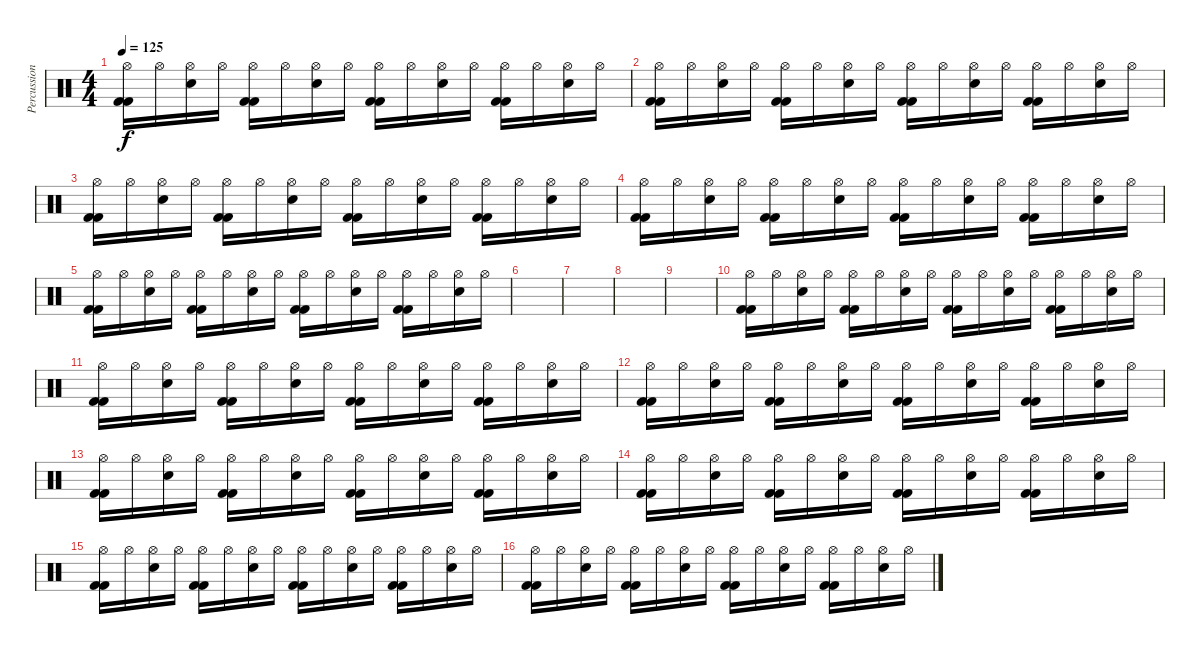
\track ("Percussioni" "Percussion") {instrument percussion}
\staff {score}
\articulation defaults
\ts (4 4)
\tempo 125
\clef neutral
\ks c
("Hi-Hat (open)" "Kick (hit) 2" "Kick (hit) 2").16{dy f} "Hi-Hat (open)".16 ("Hi-Hat (open)" "Electric Snare (hit)").16 "Hi-Hat (open)".16 ("Hi-Hat (open)" "Kick (hit) 2" "Kick (hit) 2").16 "Hi-Hat (open)".16 ("Hi-Hat (open)" "Electric Snare (hit)").16 "Hi-Hat (open)".16 ("Hi-Hat (open)" "Kick (hit) 2" "Kick (hit) 2").16 "Hi-Hat (open)".16 ("Hi-Hat (open)" "Electric Snare (hit)").16 "Hi-Hat (open)".16 ("Hi-Hat (open)" "Kick (hit) 2" "Kick (hit) 2").16 "Hi-Hat (open)".16 ("Hi-Hat (open)" "Electric Snare (hit)").16 "Hi-Hat (open)".16 |
("Hi-Hat (open)" "Kick (hit) 2" "Kick (hit) 2").16 "Hi-Hat (open)".16 ("Hi-Hat (open)" "Electric Snare (hit)").16 "Hi-Hat (open)".16 ("Hi-Hat (open)" "Kick (hit) 2" "Kick (hit) 2").16 "Hi-Hat (open)".16 ("Hi-Hat (open)" "Electric Snare (hit)").16 "Hi-Hat (open)".16 ("Hi-Hat (open)" "Kick (hit) 2" "Kick (hit) 2").16 "Hi-Hat (open)".16 ("Hi-Hat (open)" "Electric Snare (hit)").16 "Hi-Hat (open)".16 ("Hi-Hat (open)" "Kick (hit) 2" "Kick (hit) 2").16 "Hi-Hat (open)".16 ("Hi-Hat (open)" "Electric Snare (hit)").16 "Hi-Hat (open)".16 |
("Hi-Hat (open)" "Kick (hit) 2" "Kick (hit) 2").16 "Hi-Hat (open)".16 ("Hi-Hat (open)" "Electric Snare (hit)").16 "Hi-Hat (open)".16 ("Hi-Hat (open)" "Kick (hit) 2" "Kick (hit) 2").16 "Hi-Hat (open)".16 ("Hi-Hat (open)" "Electric Snare (hit)").16 "Hi-Hat (open)".16 ("Hi-Hat (open)" "Kick (hit) 2" "Kick (hit) 2").16 "Hi-Hat (open)".16 ("Hi-Hat (open)" "Electric Snare (hit)").16 "Hi-Hat (open)".16 ("Hi-Hat (open)" "Kick (hit) 2" "Kick (hit) 2").16 "Hi-Hat (open)".16 ("Hi-Hat (open)" "Electric Snare (hit)").16 "Hi-Hat (open)".16 |
("Hi-Hat (open)" "Kick (hit) 2" "Kick (hit) 2").16 "Hi-Hat (open)".16 ("Hi-Hat (open)" "Electric Snare (hit)").16 "Hi-Hat (open)".16 ("Hi-Hat (open)" "Kick (hit) 2" "Kick (hit) 2").16 "Hi-Hat (open)".16 ("Hi-Hat (open)" "Electric Snare (hit)").16 "Hi-Hat (open)".16 ("Hi-Hat (open)" "Kick (hit) 2" "Kick (hit) 2").16 "Hi-Hat (open)".16 ("Hi-Hat (open)" "Electric Snare (hit)").16 "Hi-Hat (open)".16 ("Hi-Hat (open)" "Kick (hit) 2" "Kick (hit) 2").16 "Hi-Hat (open)".16 ("Hi-Hat (open)" "Electric Snare (hit)").16 "Hi-Hat (open)".16 |
("Hi-Hat (open)" "Kick (hit) 2" "Kick (hit) 2").16 "Hi-Hat (open)".16 ("Hi-Hat (open)" "Electric Snare (hit)").16 "Hi-Hat (open)".16 ("Hi-Hat (open)" "Kick (hit) 2" "Kick (hit) 2").16 "Hi-Hat (open)".16 ("Hi-Hat (open)" "Electric Snare (hit)").16 "Hi-Hat (open)".16 ("Hi-Hat (open)" "Kick (hit) 2" "Kick (hit) 2").16 "Hi-Hat (open)".16 ("Hi-Hat (open)" "Electric Snare (hit)").16 "Hi-Hat (open)".16 ("Hi-Hat (open)" "Kick (hit) 2" "Kick (hit) 2").16 "Hi-Hat (open)".16 ("Hi-Hat (open)" "Electric Snare (hit)").16 "Hi-Hat (open)".16 |
|
|
|
|
("Hi-Hat (open)" "Kick (hit) 2" "Kick (hit) 2").16 "Hi-Hat (open)".16 ("Hi-Hat (open)" "Electric Snare (hit)").16 "Hi-Hat (open)".16 ("Hi-Hat (open)" "Kick (hit) 2" "Kick (hit) 2").16 "Hi-Hat (open)".16 ("Hi-Hat (open)" "Electric Snare (hit)").16 "Hi-Hat (open)".16 ("Hi-Hat (open)" "Kick (hit) 2" "Kick (hit) 2").16 "Hi-Hat (open)".16 ("Hi-Hat (open)" "Electric Snare (hit)").16 "Hi-Hat (open)".16 ("Hi-Hat (open)" "Kick (hit) 2" "Kick (hit) 2").16 "Hi-Hat (open)".16 ("Hi-Hat (open)" "Electric Snare (hit)").16 "Hi-Hat (open)".16 |
("Hi-Hat (open)" "Kick (hit) 2" "Kick (hit) 2").16 "Hi-Hat (open)".16 ("Hi-Hat (open)" "Electric Snare (hit)").16 "Hi-Hat (open)".16 ("Hi-Hat (open)" "Kick (hit) 2" "Kick (hit) 2").16 "Hi-Hat (open)".16 ("Hi-Hat (open)" "Electric Snare (hit)").16 "Hi-Hat (open)".16 ("Hi-Hat (open)" "Kick (hit) 2" "Kick (hit) 2").16 "Hi-Hat (open)".16 ("Hi-Hat (open)" "Electric Snare (hit)").16 "Hi-Hat (open)".16 ("Hi-Hat (open)" "Kick (hit) 2" "Kick (hit) 2").16 "Hi-Hat (open)".16 ("Hi-Hat (open)" "Electric Snare (hit)").16 "Hi-Hat (open)".16 |
("Hi-Hat (open)" "Kick (hit) 2" "Kick (hit) 2").16 "Hi-Hat (open)".16 ("Hi-Hat (open)" "Electric Snare (hit)").16 "Hi-Hat (open)".16 ("Hi-Hat (open)" "Kick (hit) 2" "Kick (hit) 2").16 "Hi-Hat (open)".16 ("Hi-Hat (open)" "Electric Snare (hit)").16 "Hi-Hat (open)".16 ("Hi-Hat (open)" "Kick (hit) 2" "Kick (hit) 2").16 "Hi-Hat (open)".16 ("Hi-Hat (open)" "Electric Snare (hit)").16 "Hi-Hat (open)".16 ("Hi-Hat (open)" "Kick (hit) 2" "Kick (hit) 2").16 "Hi-Hat (open)".16 ("Hi-Hat (open)" "Electric Snare (hit)").16 "Hi-Hat (open)".16 |
("Hi-Hat (open)" "Kick (hit) 2" "Kick (hit) 2").16 "Hi-Hat (open)".16 ("Hi-Hat (open)" "Electric Snare (hit)").16 "Hi-Hat (open)".16 ("Hi-Hat (open)" "Kick (hit) 2" "Kick (hit) 2").16 "Hi-Hat (open)".16 ("Hi-Hat (open)" "Electric Snare (hit)").16 "Hi-Hat (open)".16 ("Hi-Hat (open)" "Kick (hit) 2" "Kick (hit) 2").16 "Hi-Hat (open)".16 ("Hi-Hat (open)" "Electric Snare (hit)").16 "Hi-Hat (open)".16 ("Hi-Hat (open)" "Kick (hit) 2" "Kick (hit) 2").16 "Hi-Hat (open)".16 ("Hi-Hat (open)" "Electric Snare (hit)").16 "Hi-Hat (open)".16 |
("Hi-Hat (open)" "Kick (hit) 2" "Kick (hit) 2").16 "Hi-Hat (open)".16 ("Hi-Hat (open)" "Electric Snare (hit)").16 "Hi-Hat (open)".16 ("Hi-Hat (open)" "Kick (hit) 2" "Kick (hit) 2").16 "Hi-Hat (open)".16 ("Hi-Hat (open)" "Electric Snare (hit)").16 "Hi-Hat (open)".16 ("Hi-Hat (open)" "Kick (hit) 2" "Kick (hit) 2").16 "Hi-Hat (open)".16 ("Hi-Hat (open)" "Electric Snare (hit)").16 "Hi-Hat (open)".16 ("Hi-Hat (open)" "Kick (hit) 2" "Kick (hit) 2").16 "Hi-Hat (open)".16 ("Hi-Hat (open)" "Electric Snare (hit)").16 "Hi-Hat (open)".16 |
("Hi-Hat (open)" "Kick (hit) 2" "Kick (hit) 2").16 "Hi-Hat (open)".16 ("Hi-Hat (open)" "Electric Snare (hit)").16 "Hi-Hat (open)".16 ("Hi-Hat (open)" "Kick (hit) 2" "Kick (hit) 2").16 "Hi-Hat (open)".16 ("Hi-Hat (open)" "Electric Snare (hit)").16 "Hi-Hat (open)".16 ("Hi-Hat (open)" "Kick (hit) 2" "Kick (hit) 2").16 "Hi-Hat (open)".16 ("Hi-Hat (open)" "Electric Snare (hit)").16 "Hi-Hat (open)".16 ("Hi-Hat (open)" "Kick (hit) 2" "Kick (hit) 2").16 "Hi-Hat (open)".16 ("Hi-Hat (open)" "Electric Snare (hit)").16 "Hi-Hat (open)".16 |
("Hi-Hat (open)" "Kick (hit) 2" "Kick (hit) 2").16 "Hi-Hat (open)".16 ("Hi-Hat (open)" "Electric Snare (hit)").16 "Hi-Hat (open)".16 ("Hi-Hat (open)" "Kick (hit) 2" "Kick (hit) 2").16 "Hi-Hat (open)".16 ("Hi-Hat (open)" "Electric Snare (hit)").16 "Hi-Hat (open)".16 ("Hi-Hat (open)" "Kick (hit) 2" "Kick (hit) 2").16 "Hi-Hat (open)".16 ("Hi-Hat (open)" "Electric Snare (hit)").16 "Hi-Hat (open)".16 ("Hi-Hat (open)" "Kick (hit) 2" "Kick (hit) 2").16 "Hi-Hat (open)".16 ("Hi-Hat (open)" "Electric Snare (hit)").16 "Hi-Hat (open)".16
